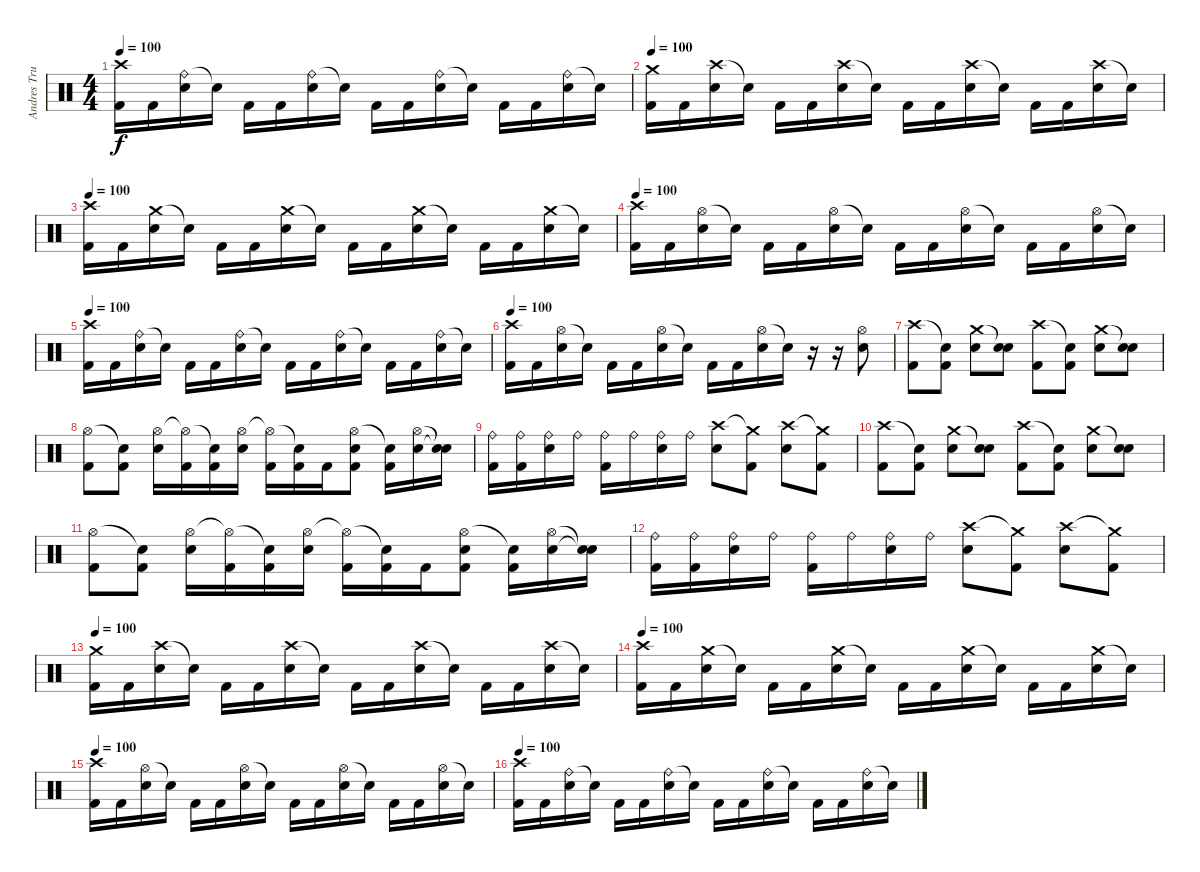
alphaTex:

\track ("Andres Trujillo" "Andres Tru") {instrument percussion}
\staff {score}
\articulation defaults
\ts (4 4)
\tempo 100
\clef neutral
\ks c
("Crash high (hit)" "Kick (hit) 2").16{dy f} "Kick (hit) 2".16 ("Ride (bell)" "Electric Snare (hit)").16 "Snare (hit)"{t}.16 "Kick (hit) 2".16 "Kick (hit) 2".16 ("Ride (bell)" "Electric Snare (hit)").16 "Snare (hit)"{t}.16 "Kick (hit) 2".16 "Kick (hit) 2".16 ("Ride (bell)" "Electric Snare (hit)").16 "Snare (hit)"{t}.16 "Kick (hit) 2".16 "Kick (hit) 2".16 ("Ride (bell)" "Electric Snare (hit)").16 "Snare (hit)"{t}.16 |
\tempo 100
("Crash medium (hit)" "Kick (hit) 2").16 "Kick (hit) 2".16 ("Crash high (hit)" "Electric Snare (hit)").16 "Snare (hit)"{t}.16 "Kick (hit) 2".16 "Kick (hit) 2".16 ("Crash high (hit)" "Electric Snare (hit)").16 "Snare (hit)"{t}.16 "Kick (hit) 2".16 "Kick (hit) 2".16 ("Crash high (hit)" "Electric Snare (hit)").16 "Snare (hit)"{t}.16 "Kick (hit) 2".16 "Kick (hit) 2".16 ("Crash high (hit)" "Electric Snare (hit)").16 "Snare (hit)"{t}.16 |
\tempo 100
("Crash high (hit)" "Kick (hit) 2").16 "Kick (hit) 2".16 ("Crash medium (hit)" "Electric Snare (hit)").16 "Snare (hit)"{t}.16 "Kick (hit) 2".16 "Kick (hit) 2".16 ("Crash medium (hit)" "Electric Snare (hit)").16 "Snare (hit)"{t}.16 "Kick (hit) 2".16 "Kick (hit) 2".16 ("Crash medium (hit)" "Electric Snare (hit)").16 "Snare (hit)"{t}.16 "Kick (hit) 2".16 "Kick (hit) 2".16 ("Crash medium (hit)" "Electric Snare (hit)").16 "Snare (hit)"{t}.16 |
\tempo 100
("Crash high (hit)" "Kick (hit) 2").16 "Kick (hit) 2".16 ("Hi-Hat (open)" "Electric Snare (hit)").16 "Snare (hit)"{t}.16 "Kick (hit) 2".16 "Kick (hit) 2".16 ("Hi-Hat (open)" "Electric Snare (hit)").16 "Snare (hit)"{t}.16 "Kick (hit) 2".16 "Kick (hit) 2".16 ("Hi-Hat (open)" "Electric Snare (hit)").16 "Snare (hit)"{t}.16 "Kick (hit) 2".16 "Kick (hit) 2".16 ("Hi-Hat (open)" "Electric Snare (hit)").16 "Snare (hit)"{t}.16 |
\tempo 100
("Crash high (hit)" "Kick (hit) 2").16 "Kick (hit) 2".16 ("Ride (bell)" "Electric Snare (hit)").16 "Snare (hit)"{t}.16 "Kick (hit) 2".16 "Kick (hit) 2".16 ("Ride (bell)" "Electric Snare (hit)").16 "Snare (hit)"{t}.16 "Kick (hit) 2".16 "Kick (hit) 2".16 ("Ride (bell)" "Electric Snare (hit)").16 "Snare (hit)"{t}.16 "Kick (hit) 2".16 "Kick (hit) 2".16 ("Ride (bell)" "Electric Snare (hit)").16 "Snare (hit)"{t}.16 |
\tempo 100
("Crash high (hit)" "Kick (hit) 2").16 "Kick (hit) 2".16 ("Hi-Hat (open)" "Electric Snare (hit)").16 "Snare (hit)"{t}.16 "Kick (hit) 2".16 "Kick (hit) 2".16 ("Hi-Hat (open)" "Electric Snare (hit)").16 "Snare (hit)"{t}.16 "Kick (hit) 2".16 "Kick (hit) 2".16 ("Hi-Hat (open)" "Electric Snare (hit)").16 "Snare (hit)"{t}.16 r.16 r.16 ("Hi-Hat (open)" "Electric Snare (hit)").8 |
("Crash high (hit)" "Kick (hit) 2").8 ("Snare (hit)"{t} "Kick (hit) 2").8 ("Crash medium (hit)" "Electric Snare (hit)").8 ("Snare (hit)"{t} "Electric Snare (hit)").8 ("Crash high (hit)" "Kick (hit) 2").8 ("Snare (hit)"{t} "Kick (hit) 2").8 ("Crash medium (hit)" "Electric Snare (hit)").8 ("Snare (hit)"{t} "Electric Snare (hit)").8 |
("Hi-Hat (open)" "Kick (hit) 2").8 ("Snare (hit)"{t} "Kick (hit) 2").8 ("Hi-Hat (open)" "Electric Snare (hit)").16 ("Hi-Hat (open)"{t} "Kick (hit) 2").16 ("Snare (hit)"{t} "Kick (hit) 2").16 ("Hi-Hat (open)" "Electric Snare (hit)").16 ("Hi-Hat (open)"{t} "Kick (hit) 2").16 ("Snare (hit)"{t} "Kick (hit) 2").16 "Kick (hit) 2".16 ("Hi-Hat (open)" "Electric Snare (hit)" "Kick (hit) 2").8 ("Snare (hit)"{t} "Kick (hit) 2").16 ("Hi-Hat (open)" "Electric Snare (hit)").16 ("Snare (hit)"{t} "Snare (hit)"{t}).16 |
("Ride (bell)" "Kick (hit) 2").16 ("Ride (bell)" "Kick (hit) 2").16 ("Ride (bell)" "Electric Snare (hit)").16 "Ride (bell)".16 ("Ride (bell)" "Kick (hit) 2").16 "Ride (bell)".16 ("Ride (bell)" "Electric Snare (hit)").16 "Ride (bell)".16 ("Crash high (hit)" "Electric Snare (hit)").8 ("Crash medium (hit)"{t} "Kick (hit) 2").8 ("Crash high (hit)" "Electric Snare (hit)").8 ("Crash medium (hit)"{t} "Kick (hit) 2").8 |
("Crash high (hit)" "Kick (hit) 2").8 ("Snare (hit)"{t} "Kick (hit) 2").8 ("Crash medium (hit)" "Electric Snare (hit)").8 ("Snare (hit)"{t} "Electric Snare (hit)").8 ("Crash high (hit)" "Kick (hit) 2").8 ("Snare (hit)"{t} "Kick (hit) 2").8 ("Crash medium (hit)" "Electric Snare (hit)").8 ("Snare (hit)"{t} "Electric Snare (hit)").8 |
("Hi-Hat (open)" "Kick (hit) 2").8 ("Snare (hit)"{t} "Kick (hit) 2").8 ("Hi-Hat (open)" "Electric Snare (hit)").16 ("Hi-Hat (open)"{t} "Kick (hit) 2").16 ("Snare (hit)"{t} "Kick (hit) 2").16 ("Hi-Hat (open)" "Electric Snare (hit)").16 ("Hi-Hat (open)"{t} "Kick (hit) 2").16 ("Snare (hit)"{t} "Kick (hit) 2").16 "Kick (hit) 2".16 ("Hi-Hat (open)" "Electric Snare (hit)" "Kick (hit) 2").8 ("Snare (hit)"{t} "Kick (hit) 2").16 ("Hi-Hat (open)" "Electric Snare (hit)").16 ("Snare (hit)"{t} "Snare (hit)"{t}).16 |
("Ride (bell)" "Kick (hit) 2").16 ("Ride (bell)" "Kick (hit) 2").16 ("Ride (bell)" "Electric Snare (hit)").16 "Ride (bell)".16 ("Ride (bell)" "Kick (hit) 2").16 "Ride (bell)".16 ("Ride (bell)" "Electric Snare (hit)").16 "Ride (bell)".16 ("Crash high (hit)" "Electric Snare (hit)").8 ("Crash medium (hit)"{t} "Kick (hit) 2").8 ("Crash high (hit)" "Electric Snare (hit)").8 ("Crash medium (hit)"{t} "Kick (hit) 2").8 |
\tempo 100
("Crash medium (hit)" "Kick (hit) 2").16 "Kick (hit) 2".16 ("Crash high (hit)" "Electric Snare (hit)").16 "Snare (hit)"{t}.16 "Kick (hit) 2".16 "Kick (hit) 2".16 ("Crash high (hit)" "Electric Snare (hit)").16 "Snare (hit)"{t}.16 "Kick (hit) 2".16 "Kick (hit) 2".16 ("Crash high (hit)" "Electric Snare (hit)").16 "Snare (hit)"{t}.16 "Kick (hit) 2".16 "Kick (hit) 2".16 ("Crash high (hit)" "Electric Snare (hit)").16 "Snare (hit)"{t}.16 |
\tempo 100
("Crash high (hit)" "Kick (hit) 2").16 "Kick (hit) 2".16 ("Crash medium (hit)" "Electric Snare (hit)").16 "Snare (hit)"{t}.16 "Kick (hit) 2".16 "Kick (hit) 2".16 ("Crash medium (hit)" "Electric Snare (hit)").16 "Snare (hit)"{t}.16 "Kick (hit) 2".16 "Kick (hit) 2".16 ("Crash medium (hit)" "Electric Snare (hit)").16 "Snare (hit)"{t}.16 "Kick (hit) 2".16 "Kick (hit) 2".16 ("Crash medium (hit)" "Electric Snare (hit)").16 "Snare (hit)"{t}.16 |
\tempo 100
("Crash high (hit)" "Kick (hit) 2").16 "Kick (hit) 2".16 ("Hi-Hat (open)" "Electric Snare (hit)").16 "Snare (hit)"{t}.16 "Kick (hit) 2".16 "Kick (hit) 2".16 ("Hi-Hat (open)" "Electric Snare (hit)").16 "Snare (hit)"{t}.16 "Kick (hit) 2".16 "Kick (hit) 2".16 ("Hi-Hat (open)" "Electric Snare (hit)").16 "Snare (hit)"{t}.16 "Kick (hit) 2".16 "Kick (hit) 2".16 ("Hi-Hat (open)" "Electric Snare (hit)").16 "Snare (hit)"{t}.16 |
\tempo 100
("Crash high (hit)" "Kick (hit) 2").16 "Kick (hit) 2".16 ("Ride (bell)" "Electric Snare (hit)").16 "Snare (hit)"{t}.16 "Kick (hit) 2".16 "Kick (hit) 2".16 ("Ride (bell)" "Electric Snare (hit)").16 "Snare (hit)"{t}.16 "Kick (hit) 2".16 "Kick (hit) 2".16 ("Ride (bell)" "Electric Snare (hit)").16 "Snare (hit)"{t}.16 "Kick (hit) 2".16 "Kick (hit) 2".16 ("Ride (bell)" "Electric Snare (hit)").16 "Snare (hit)"{t}.16
